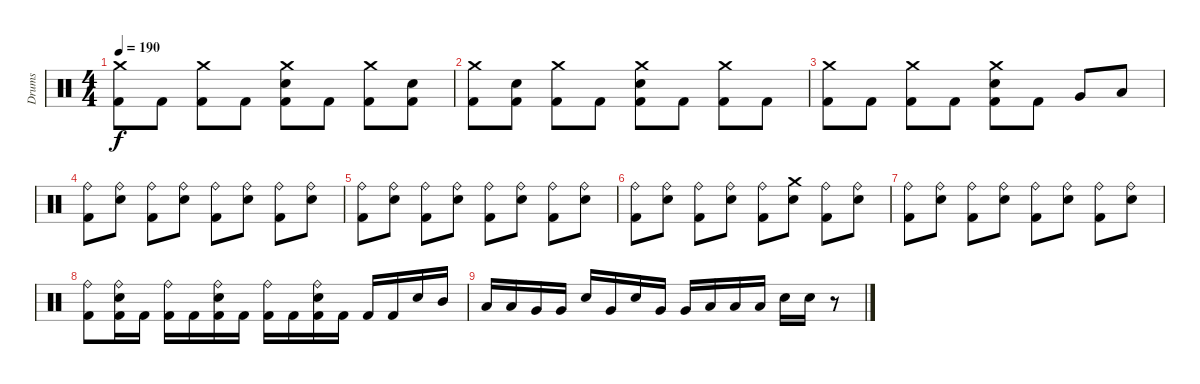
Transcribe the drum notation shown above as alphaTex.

\track ("Drums" "Drums") {instrument percussion}
\staff {score}
\articulation defaults
\ts (4 4)
\tempo 190
\clef neutral
\ks c
("Crash medium (hit)" "Kick (hit) 2").8{dy f} "Kick (hit) 2".8 ("Crash medium (hit)" "Kick (hit) 2").8 "Kick (hit) 2".8 ("Crash medium (hit)" "Electric Snare (hit)" "Kick (hit) 2").8 "Kick (hit) 2".8 ("Crash medium (hit)" "Kick (hit) 2").8 ("Electric Snare (hit)" "Kick (hit) 2").8 |
("Crash medium (hit)" "Kick (hit) 2").8 ("Electric Snare (hit)" "Kick (hit) 2").8 ("Crash medium (hit)" "Kick (hit) 2").8 "Kick (hit) 2".8 ("Crash medium (hit)" "Electric Snare (hit)" "Kick (hit) 2").8 "Kick (hit) 2".8 ("Crash medium (hit)" "Kick (hit) 2").8 "Kick (hit) 2".8 |
("Crash medium (hit)" "Kick (hit) 2").8 "Kick (hit) 2".8 ("Crash medium (hit)" "Kick (hit) 2").8 "Kick (hit) 2".8 ("Crash medium (hit)" "Electric Snare (hit)" "Kick (hit) 2").8 "Kick (hit) 2".8 "Very Low Tom (hit)".8 "Low Floor Tom (hit)".8 |
("Ride (bell)" "Kick (hit) 2").8 ("Ride (bell)" "Electric Snare (hit)").8 ("Ride (bell)" "Kick (hit) 2").8 ("Ride (bell)" "Electric Snare (hit)").8 ("Ride (bell)" "Kick (hit) 2").8 ("Ride (bell)" "Electric Snare (hit)").8 ("Ride (bell)" "Kick (hit) 2").8 ("Ride (bell)" "Electric Snare (hit)").8 |
("Ride (bell)" "Kick (hit) 2").8 ("Ride (bell)" "Electric Snare (hit)").8 ("Ride (bell)" "Kick (hit) 2").8 ("Ride (bell)" "Electric Snare (hit)").8 ("Ride (bell)" "Kick (hit) 2").8 ("Ride (bell)" "Electric Snare (hit)").8 ("Ride (bell)" "Kick (hit) 2").8 ("Ride (bell)" "Electric Snare (hit)").8 |
("Ride (bell)" "Kick (hit) 2").8 ("Ride (bell)" "Electric Snare (hit)").8 ("Ride (bell)" "Kick (hit) 2").8 ("Ride (bell)" "Electric Snare (hit)").8 ("Ride (bell)" "Kick (hit) 2").8 ("Crash medium (hit)" "Electric Snare (hit)").8 ("Ride (bell)" "Kick (hit) 2").8 ("Ride (bell)" "Electric Snare (hit)").8 |
("Ride (bell)" "Kick (hit) 2").8 ("Ride (bell)" "Electric Snare (hit)").8 ("Ride (bell)" "Kick (hit) 2").8 ("Ride (bell)" "Electric Snare (hit)").8 ("Ride (bell)" "Kick (hit) 2").8 ("Ride (bell)" "Electric Snare (hit)").8 ("Ride (bell)" "Kick (hit) 2").8 ("Ride (bell)" "Electric Snare (hit)").8 |
("Ride (bell)" "Kick (hit) 2").8 ("Ride (bell)" "Electric Snare (hit)" "Kick (hit) 2").16 "Kick (hit) 2".16 ("Ride (bell)" "Kick (hit) 2").16 "Kick (hit) 2".16 ("Ride (bell)" "Electric Snare (hit)" "Kick (hit) 2").16 "Kick (hit) 2".16 ("Ride (bell)" "Kick (hit) 2").16 "Kick (hit) 2".16 ("Ride (bell)" "Electric Snare (hit)" "Kick (hit) 2").16 "Kick (hit) 2".16 "Kick (hit) 2".16 "Kick (hit) 2".16 "Electric Snare (hit)".16 "Mid Tom (hit)".16 |
"Low Tom (hit)".16 "Low Tom (hit)".16 "Very Low Tom (hit)".16 "Very Low Tom (hit)".16 "Electric Snare (hit)".16 "Very Low Tom (hit)".16 "Electric Snare (hit)".16 "Very Low Tom (hit)".16 "Very Low Tom (hit)".16 "Low Floor Tom (hit)".16 "Low Floor Tom (hit)".16 "Low Floor Tom (hit)".16 "Electric Snare (hit)".16 "Electric Snare (hit)".16 r.8
